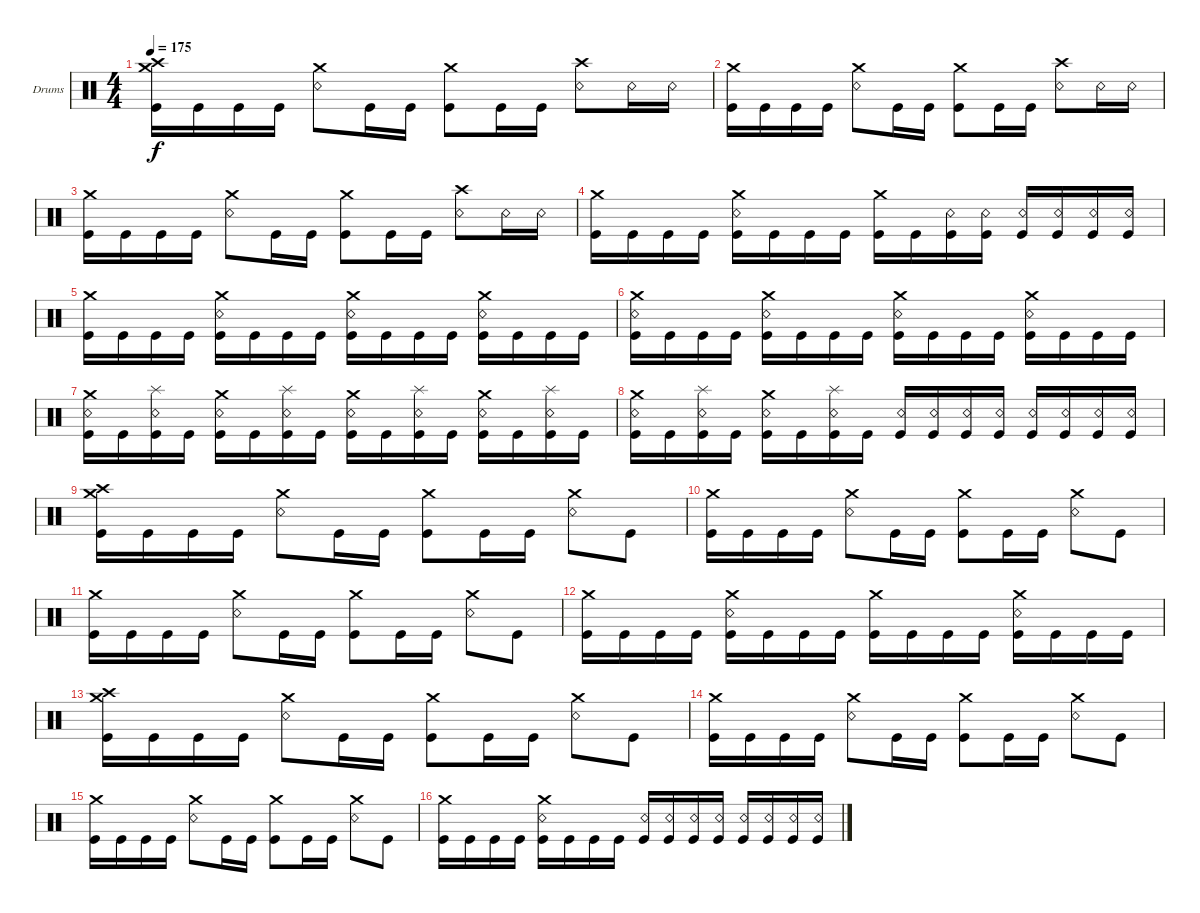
\bracketExtendMode groupsimilarinstruments
\firstSystemTrackNameOrientation horizontal
\otherSystemsTrackNameOrientation horizontal
\track ("Drumkit" "Drums") {instrument percussion}
\staff {score}
\articulation defaults
\ts (4 4)
\tempo 175
\clef neutral
\ks c
("Crash high (hit)" "Crash medium (hit)" "Kick (hit)").16{dy f} "Kick (hit)".16 "Kick (hit)".16 "Kick (hit)".16 ("Crash medium (hit)" "Snare (rim shot)").8 "Kick (hit)".16 "Kick (hit)".16 ("Crash medium (hit)" "Kick (hit)").8 "Kick (hit)".16 "Kick (hit)".16 ("Crash high (hit)" "Snare (rim shot)").8 "Snare (rim shot)".16 "Snare (rim shot)".16 |
("Crash medium (hit)" "Kick (hit)").16 "Kick (hit)".16 "Kick (hit)".16 "Kick (hit)".16 ("Crash medium (hit)" "Snare (rim shot)").8 "Kick (hit)".16 "Kick (hit)".16 ("Crash medium (hit)" "Kick (hit)").8 "Kick (hit)".16 "Kick (hit)".16 ("Crash high (hit)" "Snare (rim shot)").8 "Snare (rim shot)".16 "Snare (rim shot)".16 |
("Crash medium (hit)" "Kick (hit)").16 "Kick (hit)".16 "Kick (hit)".16 "Kick (hit)".16 ("Crash medium (hit)" "Snare (rim shot)").8 "Kick (hit)".16 "Kick (hit)".16 ("Crash medium (hit)" "Kick (hit)").8 "Kick (hit)".16 "Kick (hit)".16 ("Crash high (hit)" "Snare (rim shot)").8 "Snare (rim shot)".16 "Snare (rim shot)".16 |
("Crash medium (hit)" "Kick (hit)").16 "Kick (hit)".16 "Kick (hit)".16 "Kick (hit)".16 ("Crash medium (hit)" "Snare (rim shot)" "Kick (hit)").16 "Kick (hit)".16 "Kick (hit)".16 "Kick (hit)".16 ("Crash medium (hit)" "Kick (hit)").16 "Kick (hit)".16 ("Snare (rim shot)" "Kick (hit)").16 ("Snare (rim shot)" "Kick (hit)").16 ("Snare (rim shot)" "Kick (hit)").16 ("Snare (rim shot)" "Kick (hit)").16 ("Snare (rim shot)" "Kick (hit)").16 ("Snare (rim shot)" "Kick (hit)").16 |
("Crash medium (hit)" "Kick (hit)").16 "Kick (hit)".16 "Kick (hit)".16 "Kick (hit)".16 ("Crash medium (hit)" "Snare (rim shot)" "Kick (hit)").16 "Kick (hit)".16 "Kick (hit)".16 "Kick (hit)".16 ("Crash medium (hit)" "Snare (rim shot)" "Kick (hit)").16 "Kick (hit)".16 "Kick (hit)".16 "Kick (hit)".16 ("Crash medium (hit)" "Snare (rim shot)" "Kick (hit)").16 "Kick (hit)".16 "Kick (hit)".16 "Kick (hit)".16 |
("Crash medium (hit)" "Snare (rim shot)" "Kick (hit)").16 "Kick (hit)".16 "Kick (hit)".16 "Kick (hit)".16 ("Crash medium (hit)" "Snare (rim shot)" "Kick (hit)").16 "Kick (hit)".16 "Kick (hit)".16 "Kick (hit)".16 ("Crash medium (hit)" "Snare (rim shot)" "Kick (hit)").16 "Kick (hit)".16 "Kick (hit)".16 "Kick (hit)".16 ("Crash medium (hit)" "Snare (rim shot)" "Kick (hit)").16 "Kick (hit)".16 "Kick (hit)".16 "Kick (hit)".16 |
("Crash medium (hit)" "Snare (rim shot)" "Kick (hit)").16 "Kick (hit)".16 ("Splash (hit)" "Snare (rim shot)" "Kick (hit)").16 "Kick (hit)".16 ("Crash medium (hit)" "Snare (rim shot)" "Kick (hit)").16 "Kick (hit)".16 ("Splash (hit)" "Snare (rim shot)" "Kick (hit)").16 "Kick (hit)".16 ("Crash medium (hit)" "Snare (rim shot)" "Kick (hit)").16 "Kick (hit)".16 ("Splash (hit)" "Snare (rim shot)" "Kick (hit)").16 "Kick (hit)".16 ("Crash medium (hit)" "Snare (rim shot)" "Kick (hit)").16 "Kick (hit)".16 ("Splash (hit)" "Snare (rim shot)" "Kick (hit)").16 "Kick (hit)".16 |
("Crash medium (hit)" "Snare (rim shot)" "Kick (hit)").16 "Kick (hit)".16 ("Splash (hit)" "Snare (rim shot)" "Kick (hit)").16 "Kick (hit)".16 ("Crash medium (hit)" "Snare (rim shot)" "Kick (hit)").16 "Kick (hit)".16 ("Splash (hit)" "Snare (rim shot)" "Kick (hit)").16 "Kick (hit)".16 ("Snare (rim shot)" "Kick (hit)").16 ("Snare (rim shot)" "Kick (hit)").16 ("Snare (rim shot)" "Kick (hit)").16 ("Snare (rim shot)" "Kick (hit)").16 ("Snare (rim shot)" "Kick (hit)").16 ("Snare (rim shot)" "Kick (hit)").16 ("Snare (rim shot)" "Kick (hit)").16 ("Snare (rim shot)" "Kick (hit)").16 |
("Crash high (hit)" "Crash medium (hit)" "Kick (hit)").16 "Kick (hit)".16 "Kick (hit)".16 "Kick (hit)".16 ("Crash medium (hit)" "Snare (rim shot)").8 "Kick (hit)".16 "Kick (hit)".16 ("Crash medium (hit)" "Kick (hit)").8 "Kick (hit)".16 "Kick (hit)".16 ("Crash medium (hit)" "Snare (rim shot)").8 "Kick (hit)".8 |
("Crash medium (hit)" "Kick (hit)").16 "Kick (hit)".16 "Kick (hit)".16 "Kick (hit)".16 ("Crash medium (hit)" "Snare (rim shot)").8 "Kick (hit)".16 "Kick (hit)".16 ("Crash medium (hit)" "Kick (hit)").8 "Kick (hit)".16 "Kick (hit)".16 ("Crash medium (hit)" "Snare (rim shot)").8 "Kick (hit)".8 |
("Crash medium (hit)" "Kick (hit)").16 "Kick (hit)".16 "Kick (hit)".16 "Kick (hit)".16 ("Crash medium (hit)" "Snare (rim shot)").8 "Kick (hit)".16 "Kick (hit)".16 ("Crash medium (hit)" "Kick (hit)").8 "Kick (hit)".16 "Kick (hit)".16 ("Crash medium (hit)" "Snare (rim shot)").8 "Kick (hit)".8 |
("Crash medium (hit)" "Kick (hit)").16 "Kick (hit)".16 "Kick (hit)".16 "Kick (hit)".16 ("Crash medium (hit)" "Snare (rim shot)" "Kick (hit)").16 "Kick (hit)".16 "Kick (hit)".16 "Kick (hit)".16 ("Crash medium (hit)" "Kick (hit)").16 "Kick (hit)".16 "Kick (hit)".16 "Kick (hit)".16 ("Crash medium (hit)" "Snare (rim shot)" "Kick (hit)").16 "Kick (hit)".16 "Kick (hit)".16 "Kick (hit)".16 |
("Crash high (hit)" "Crash medium (hit)" "Kick (hit)").16 "Kick (hit)".16 "Kick (hit)".16 "Kick (hit)".16 ("Crash medium (hit)" "Snare (rim shot)").8 "Kick (hit)".16 "Kick (hit)".16 ("Crash medium (hit)" "Kick (hit)").8 "Kick (hit)".16 "Kick (hit)".16 ("Crash medium (hit)" "Snare (rim shot)").8 "Kick (hit)".8 |
("Crash medium (hit)" "Kick (hit)").16 "Kick (hit)".16 "Kick (hit)".16 "Kick (hit)".16 ("Crash medium (hit)" "Snare (rim shot)").8 "Kick (hit)".16 "Kick (hit)".16 ("Crash medium (hit)" "Kick (hit)").8 "Kick (hit)".16 "Kick (hit)".16 ("Crash medium (hit)" "Snare (rim shot)").8 "Kick (hit)".8 |
("Crash medium (hit)" "Kick (hit)").16 "Kick (hit)".16 "Kick (hit)".16 "Kick (hit)".16 ("Crash medium (hit)" "Snare (rim shot)").8 "Kick (hit)".16 "Kick (hit)".16 ("Crash medium (hit)" "Kick (hit)").8 "Kick (hit)".16 "Kick (hit)".16 ("Crash medium (hit)" "Snare (rim shot)").8 "Kick (hit)".8 |
("Crash medium (hit)" "Kick (hit)").16 "Kick (hit)".16 "Kick (hit)".16 "Kick (hit)".16 ("Crash medium (hit)" "Snare (rim shot)" "Kick (hit)").16 "Kick (hit)".16 "Kick (hit)".16 "Kick (hit)".16 ("Snare (rim shot)" "Kick (hit)").16 ("Snare (rim shot)" "Kick (hit)").16 ("Snare (rim shot)" "Kick (hit)").16 ("Snare (rim shot)" "Kick (hit)").16 ("Snare (rim shot)" "Kick (hit)").16 ("Snare (rim shot)" "Kick (hit)").16 ("Snare (rim shot)" "Kick (hit)").16 ("Snare (rim shot)" "Kick (hit)").16
